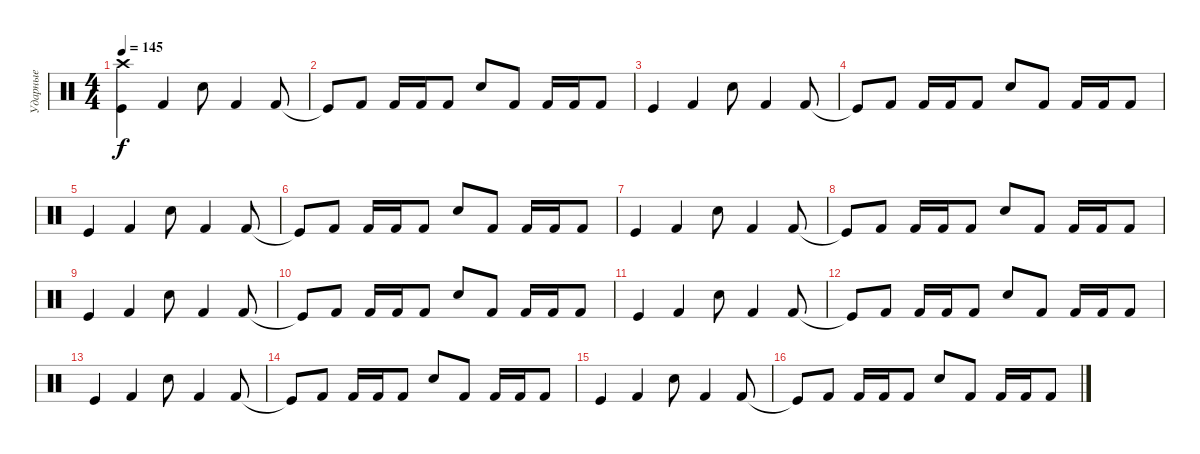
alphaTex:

\track ("Ударные" "Ударные") {instrument percussion}
\staff {score}
\articulation defaults
\ts (4 4)
\tempo 145
\clef neutral
\ks c
("Crash high (hit)" "Kick (hit)").4{dy f} "Kick (hit) 2".4 "Electric Snare (hit)".8 "Kick (hit) 2".4 "Kick (hit) 2".8 |
"Kick (hit)"{t}.8 "Kick (hit) 2".8 "Kick (hit) 2".16 "Kick (hit) 2".16 "Kick (hit) 2".8 "Electric Snare (hit)".8 "Kick (hit) 2".8 "Kick (hit) 2".16 "Kick (hit) 2".16 "Kick (hit) 2".8 |
"Kick (hit)".4 "Kick (hit) 2".4 "Electric Snare (hit)".8 "Kick (hit) 2".4 "Kick (hit) 2".8 |
"Kick (hit)"{t}.8 "Kick (hit) 2".8 "Kick (hit) 2".16 "Kick (hit) 2".16 "Kick (hit) 2".8 "Electric Snare (hit)".8 "Kick (hit) 2".8 "Kick (hit) 2".16 "Kick (hit) 2".16 "Kick (hit) 2".8 |
"Kick (hit)".4 "Kick (hit) 2".4 "Electric Snare (hit)".8 "Kick (hit) 2".4 "Kick (hit) 2".8 |
"Kick (hit)"{t}.8 "Kick (hit) 2".8 "Kick (hit) 2".16 "Kick (hit) 2".16 "Kick (hit) 2".8 "Electric Snare (hit)".8 "Kick (hit) 2".8 "Kick (hit) 2".16 "Kick (hit) 2".16 "Kick (hit) 2".8 |
"Kick (hit)".4 "Kick (hit) 2".4 "Electric Snare (hit)".8 "Kick (hit) 2".4 "Kick (hit) 2".8 |
"Kick (hit)"{t}.8 "Kick (hit) 2".8 "Kick (hit) 2".16 "Kick (hit) 2".16 "Kick (hit) 2".8 "Electric Snare (hit)".8 "Kick (hit) 2".8 "Kick (hit) 2".16 "Kick (hit) 2".16 "Kick (hit) 2".8 |
"Kick (hit)".4 "Kick (hit) 2".4 "Electric Snare (hit)".8 "Kick (hit) 2".4 "Kick (hit) 2".8 |
"Kick (hit)"{t}.8 "Kick (hit) 2".8 "Kick (hit) 2".16 "Kick (hit) 2".16 "Kick (hit) 2".8 "Electric Snare (hit)".8 "Kick (hit) 2".8 "Kick (hit) 2".16 "Kick (hit) 2".16 "Kick (hit) 2".8 |
"Kick (hit)".4 "Kick (hit) 2".4 "Electric Snare (hit)".8 "Kick (hit) 2".4 "Kick (hit) 2".8 |
"Kick (hit)"{t}.8 "Kick (hit) 2".8 "Kick (hit) 2".16 "Kick (hit) 2".16 "Kick (hit) 2".8 "Electric Snare (hit)".8 "Kick (hit) 2".8 "Kick (hit) 2".16 "Kick (hit) 2".16 "Kick (hit) 2".8 |
"Kick (hit)".4 "Kick (hit) 2".4 "Electric Snare (hit)".8 "Kick (hit) 2".4 "Kick (hit) 2".8 |
"Kick (hit)"{t}.8 "Kick (hit) 2".8 "Kick (hit) 2".16 "Kick (hit) 2".16 "Kick (hit) 2".8 "Electric Snare (hit)".8 "Kick (hit) 2".8 "Kick (hit) 2".16 "Kick (hit) 2".16 "Kick (hit) 2".8 |
"Kick (hit)".4 "Kick (hit) 2".4 "Electric Snare (hit)".8 "Kick (hit) 2".4 "Kick (hit) 2".8 |
"Kick (hit)"{t}.8 "Kick (hit) 2".8 "Kick (hit) 2".16 "Kick (hit) 2".16 "Kick (hit) 2".8 "Electric Snare (hit)".8 "Kick (hit) 2".8 "Kick (hit) 2".16 "Kick (hit) 2".16 "Kick (hit) 2".8
